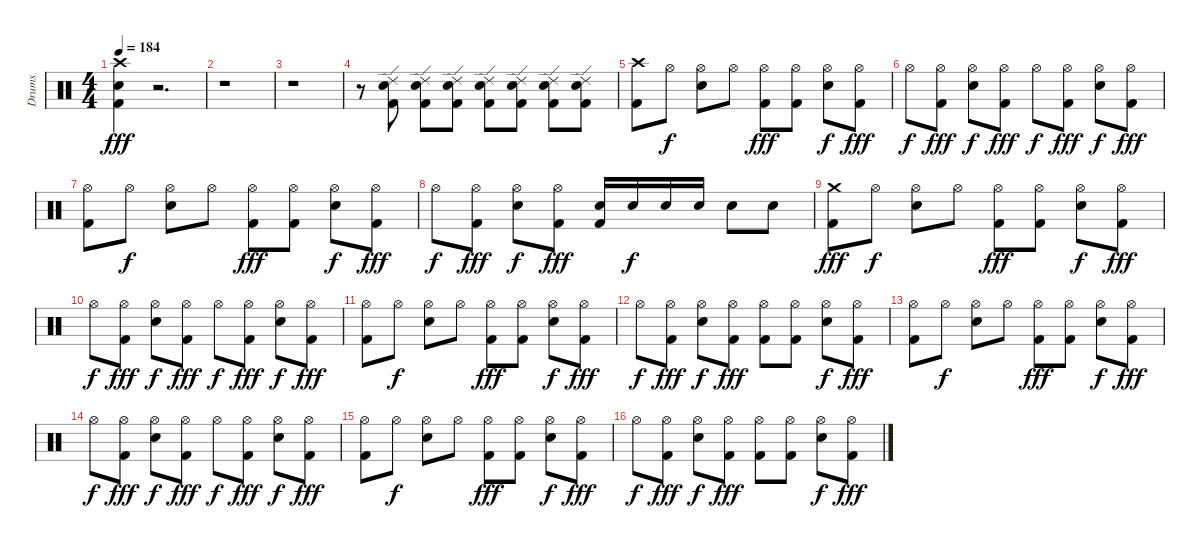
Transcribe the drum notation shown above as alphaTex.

\track ("Drums" "Drums") {instrument percussion}
\staff {score}
\articulation defaults
\ts (4 4)
\tempo 184
\clef neutral
\ks c
("Crash high (hit)" "Snare (hit) 2" "Kick (hit) 2").4{dy fff} r.2{d} |
r.1 |
r.1 |
r.8 ("Ride (edge) 2" "Snare (hit) 2" "Kick (hit) 2").8 ("Ride (edge) 2" "Snare (hit) 2" "Kick (hit) 2").8 ("Ride (edge) 2" "Snare (hit) 2" "Kick (hit) 2").8 ("Ride (edge) 2" "Snare (hit) 2" "Kick (hit) 2").8 ("Ride (edge) 2" "Snare (hit) 2" "Kick (hit) 2").8 ("Ride (edge) 2" "Snare (hit) 2" "Kick (hit) 2").8 ("Ride (edge) 2" "Snare (hit) 2" "Kick (hit) 2").8 |
("Crash high (hit)" "Kick (hit) 2").8 "Hi-Hat (open)".8{dy f} ("Hi-Hat (open)" "Snare (hit) 2").8 "Hi-Hat (open)".8 ("Hi-Hat (open)" "Kick (hit) 2").8{dy fff} ("Hi-Hat (open)" "Kick (hit) 2").8 ("Hi-Hat (open)" "Snare (hit) 2").8{dy f} ("Hi-Hat (open)" "Kick (hit) 2").8{dy fff} |
"Hi-Hat (open)".8{dy f} ("Hi-Hat (open)" "Kick (hit) 2").8{dy fff} ("Hi-Hat (open)" "Snare (hit) 2").8{dy f} ("Hi-Hat (open)" "Kick (hit) 2").8{dy fff} "Hi-Hat (open)".8{dy f} ("Hi-Hat (open)" "Kick (hit) 2").8{dy fff} ("Hi-Hat (open)" "Snare (hit) 2").8{dy f} ("Hi-Hat (open)" "Kick (hit) 2").8{dy fff} |
("Hi-Hat (open)" "Kick (hit) 2").8 "Hi-Hat (open)".8{dy f} ("Hi-Hat (open)" "Snare (hit) 2").8 "Hi-Hat (open)".8 ("Hi-Hat (open)" "Kick (hit) 2").8{dy fff} ("Hi-Hat (open)" "Kick (hit) 2").8 ("Hi-Hat (open)" "Snare (hit) 2").8{dy f} ("Hi-Hat (open)" "Kick (hit) 2").8{dy fff} |
"Hi-Hat (open)".8{dy f} ("Hi-Hat (open)" "Kick (hit) 2").8{dy fff} ("Hi-Hat (open)" "Snare (hit) 2").8{dy f} ("Hi-Hat (open)" "Kick (hit) 2").8{dy fff} ("Snare (hit) 2" "Kick (hit) 2").16 "Snare (hit) 2".16{dy f} "Snare (hit) 2".16 "Snare (hit) 2".16 "Snare (hit) 2".8 "Snare (hit) 2".8 |
("Crash medium (hit)" "Kick (hit) 2").8{dy fff} "Hi-Hat (open)".8{dy f} ("Hi-Hat (open)" "Snare (hit) 2").8 "Hi-Hat (open)".8 ("Hi-Hat (open)" "Kick (hit) 2").8{dy fff} ("Hi-Hat (open)" "Kick (hit) 2").8 ("Hi-Hat (open)" "Snare (hit) 2").8{dy f} ("Hi-Hat (open)" "Kick (hit) 2").8{dy fff} |
"Hi-Hat (open)".8{dy f} ("Hi-Hat (open)" "Kick (hit) 2").8{dy fff} ("Hi-Hat (open)" "Snare (hit) 2").8{dy f} ("Hi-Hat (open)" "Kick (hit) 2").8{dy fff} "Hi-Hat (open)".8{dy f} ("Hi-Hat (open)" "Kick (hit) 2").8{dy fff} ("Hi-Hat (open)" "Snare (hit) 2").8{dy f} ("Hi-Hat (open)" "Kick (hit) 2").8{dy fff} |
("Hi-Hat (open)" "Kick (hit) 2").8 "Hi-Hat (open)".8{dy f} ("Hi-Hat (open)" "Snare (hit) 2").8 "Hi-Hat (open)".8 ("Hi-Hat (open)" "Kick (hit) 2").8{dy fff} ("Hi-Hat (open)" "Kick (hit) 2").8 ("Hi-Hat (open)" "Snare (hit) 2").8{dy f} ("Hi-Hat (open)" "Kick (hit) 2").8{dy fff} |
"Hi-Hat (open)".8{dy f} ("Hi-Hat (open)" "Kick (hit) 2").8{dy fff} ("Hi-Hat (open)" "Snare (hit) 2").8{dy f} ("Hi-Hat (open)" "Kick (hit) 2").8{dy fff} ("Hi-Hat (open)" "Kick (hit) 2").8 ("Hi-Hat (open)" "Kick (hit) 2").8 ("Hi-Hat (open)" "Snare (hit) 2").8{dy f} ("Hi-Hat (open)" "Kick (hit) 2").8{dy fff} |
("Hi-Hat (open)" "Kick (hit) 2").8 "Hi-Hat (open)".8{dy f} ("Hi-Hat (open)" "Snare (hit) 2").8 "Hi-Hat (open)".8 ("Hi-Hat (open)" "Kick (hit) 2").8{dy fff} ("Hi-Hat (open)" "Kick (hit) 2").8 ("Hi-Hat (open)" "Snare (hit) 2").8{dy f} ("Hi-Hat (open)" "Kick (hit) 2").8{dy fff} |
"Hi-Hat (open)".8{dy f} ("Hi-Hat (open)" "Kick (hit) 2").8{dy fff} ("Hi-Hat (open)" "Snare (hit) 2").8{dy f} ("Hi-Hat (open)" "Kick (hit) 2").8{dy fff} "Hi-Hat (open)".8{dy f} ("Hi-Hat (open)" "Kick (hit) 2").8{dy fff} ("Hi-Hat (open)" "Snare (hit) 2").8{dy f} ("Hi-Hat (open)" "Kick (hit) 2").8{dy fff} |
("Hi-Hat (open)" "Kick (hit) 2").8 "Hi-Hat (open)".8{dy f} ("Hi-Hat (open)" "Snare (hit) 2").8 "Hi-Hat (open)".8 ("Hi-Hat (open)" "Kick (hit) 2").8{dy fff} ("Hi-Hat (open)" "Kick (hit) 2").8 ("Hi-Hat (open)" "Snare (hit) 2").8{dy f} ("Hi-Hat (open)" "Kick (hit) 2").8{dy fff} |
"Hi-Hat (open)".8{dy f} ("Hi-Hat (open)" "Kick (hit) 2").8{dy fff} ("Hi-Hat (open)" "Snare (hit) 2").8{dy f} ("Hi-Hat (open)" "Kick (hit) 2").8{dy fff} ("Hi-Hat (open)" "Kick (hit) 2").8 ("Hi-Hat (open)" "Kick (hit) 2").8 ("Hi-Hat (open)" "Snare (hit) 2").8{dy f} ("Hi-Hat (open)" "Kick (hit) 2").8{dy fff}
